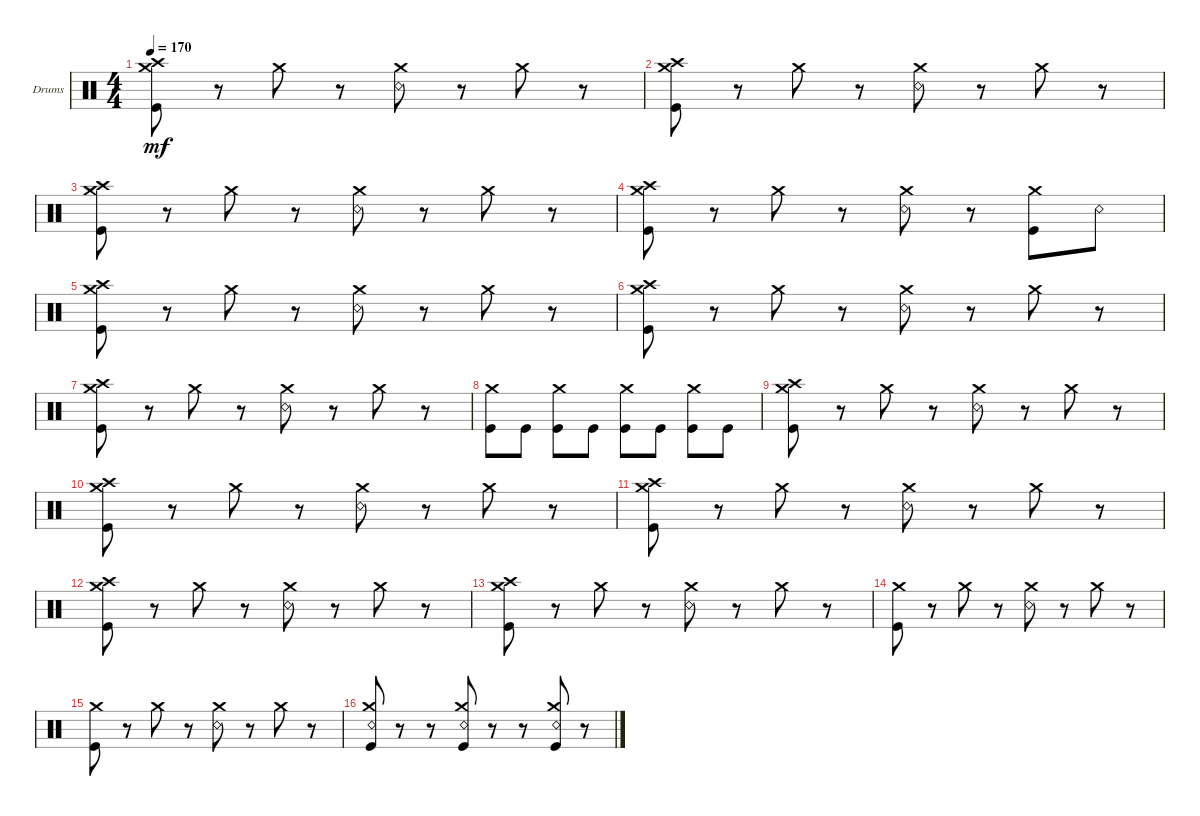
\defaultSystemsLayout 4
\bracketExtendMode groupsimilarinstruments
\firstSystemTrackNameOrientation horizontal
\otherSystemsTrackNameOrientation horizontal
\track ("Drumkit" "Drums") {instrument percussion}
\staff {score}
\articulation defaults
\ts (4 4)
\tempo 170
\clef neutral
\ks c
("Kick (hit)" "Crash medium (hit)" "Crash high (hit)").8{dy mf} r.8 "Crash medium (hit)".8 r.8 ("Snare (rim shot)" "Crash medium (hit)").8 r.8 "Crash medium (hit)".8 r.8 |
("Kick (hit)" "Crash medium (hit)" "Crash high (hit)").8 r.8 "Crash medium (hit)".8 r.8 ("Snare (rim shot)" "Crash medium (hit)").8 r.8 "Crash medium (hit)".8 r.8 |
("Kick (hit)" "Crash medium (hit)" "Crash high (hit)").8 r.8 "Crash medium (hit)".8 r.8 ("Snare (rim shot)" "Crash medium (hit)").8 r.8 "Crash medium (hit)".8 r.8 |
("Kick (hit)" "Crash medium (hit)" "Crash high (hit)").8 r.8 "Crash medium (hit)".8 r.8 ("Snare (rim shot)" "Crash medium (hit)").8 r.8 ("Crash medium (hit)" "Kick (hit)").8 "Snare (rim shot)".8 |
("Kick (hit)" "Crash medium (hit)" "Crash high (hit)").8 r.8 "Crash medium (hit)".8 r.8 ("Snare (rim shot)" "Crash medium (hit)").8 r.8 "Crash medium (hit)".8 r.8 |
("Kick (hit)" "Crash medium (hit)" "Crash high (hit)").8 r.8 "Crash medium (hit)".8 r.8 ("Snare (rim shot)" "Crash medium (hit)").8 r.8 "Crash medium (hit)".8 r.8 |
("Kick (hit)" "Crash medium (hit)" "Crash high (hit)").8 r.8 "Crash medium (hit)".8 r.8 ("Snare (rim shot)" "Crash medium (hit)").8 r.8 "Crash medium (hit)".8 r.8 |
("Kick (hit)" "Crash medium (hit)").8 "Kick (hit)".8 ("Kick (hit)" "Crash medium (hit)").8 "Kick (hit)".8 ("Crash medium (hit)" "Kick (hit)").8 "Kick (hit)".8 ("Crash medium (hit)" "Kick (hit)").8 "Kick (hit)".8 |
("Kick (hit)" "Crash medium (hit)" "Crash high (hit)").8 r.8 "Crash medium (hit)".8 r.8 ("Snare (rim shot)" "Crash medium (hit)").8 r.8 "Crash medium (hit)".8 r.8 |
("Kick (hit)" "Crash medium (hit)" "Crash high (hit)").8 r.8 "Crash medium (hit)".8 r.8 ("Snare (rim shot)" "Crash medium (hit)").8 r.8 "Crash medium (hit)".8 r.8 |
("Kick (hit)" "Crash medium (hit)" "Crash high (hit)").8 r.8 "Crash medium (hit)".8 r.8 ("Snare (rim shot)" "Crash medium (hit)").8 r.8 "Crash medium (hit)".8 r.8 |
("Kick (hit)" "Crash medium (hit)" "Crash high (hit)").8 r.8 "Crash medium (hit)".8 r.8 ("Snare (rim shot)" "Crash medium (hit)").8 r.8 "Crash medium (hit)".8 r.8 |
("Kick (hit)" "Crash medium (hit)" "Crash high (hit)").8 r.8 "Crash medium (hit)".8 r.8 ("Snare (rim shot)" "Crash medium (hit)").8 r.8 "Crash medium (hit)".8 r.8 |
("Kick (hit)" "Crash medium (hit)").8 r.8 "Crash medium (hit)".8 r.8 ("Snare (rim shot)" "Crash medium (hit)").8 r.8 "Crash medium (hit)".8 r.8 |
("Kick (hit)" "Crash medium (hit)").8 r.8 "Crash medium (hit)".8 r.8 ("Snare (rim shot)" "Crash medium (hit)").8 r.8 "Crash medium (hit)".8 r.8 |
("Kick (hit)" "Snare (rim shot)" "Crash medium (hit)").8 r.8 r.8 ("Kick (hit)" "Snare (rim shot)" "Crash medium (hit)").8 r.8 r.8 ("Kick (hit)" "Snare (rim shot)" "Crash medium (hit)").8 r.8
